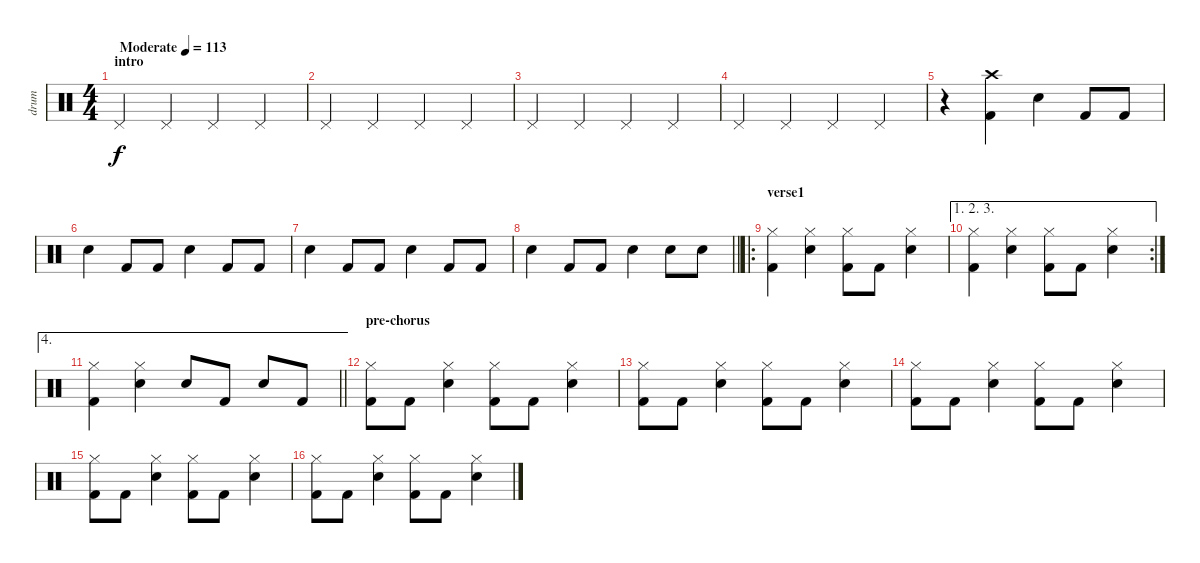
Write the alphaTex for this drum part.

\track ("drum" "drum") {instrument percussion}
\staff {score}
\articulation defaults
\ts (4 4)
\section ("" "intro")
\tempo (113 "Moderate")
\clef neutral
\ks c "Pedal Hi-Hat (hit)".4{dy f} "Pedal Hi-Hat (hit)".4 "Pedal Hi-Hat (hit)".4 "Pedal Hi-Hat (hit)".4
|
"Pedal Hi-Hat (hit)".4 "Pedal Hi-Hat (hit)".4 "Pedal Hi-Hat (hit)".4 "Pedal Hi-Hat (hit)".4 |
"Pedal Hi-Hat (hit)".4 "Pedal Hi-Hat (hit)".4 "Pedal Hi-Hat (hit)".4 "Pedal Hi-Hat (hit)".4 |
"Pedal Hi-Hat (hit)".4 "Pedal Hi-Hat (hit)".4 "Pedal Hi-Hat (hit)".4 "Pedal Hi-Hat (hit)".4 |
r.4 ("Crash high (hit)" "Kick (hit) 2").4 "Electric Snare (hit)".4 "Kick (hit) 2".8 "Kick (hit) 2".8 |
"Electric Snare (hit)".4 "Kick (hit) 2".8 "Kick (hit) 2".8 "Electric Snare (hit)".4 "Kick (hit) 2".8 "Kick (hit) 2".8 |
"Electric Snare (hit)".4 "Kick (hit) 2".8 "Kick (hit) 2".8 "Electric Snare (hit)".4 "Kick (hit) 2".8 "Kick (hit) 2".8 |
\barLineRight lightlight "Electric Snare (hit)".4 "Kick (hit) 2".8 "Kick (hit) 2".8 "Electric Snare (hit)".4 "Electric Snare (hit)".8 "Electric Snare (hit)".8
|
\ro
\section ("" "verse1")
("Kick (hit) 2" "Hi-Hat (closed)").4 ("Electric Snare (hit)" "Hi-Hat (closed)").4 ("Kick (hit) 2" "Hi-Hat (closed)").8 "Kick (hit) 2".8 ("Electric Snare (hit)" "Hi-Hat (closed)").4 |
\ae (1 2 3)
\rc 2
("Kick (hit) 2" "Hi-Hat (closed)").4 ("Electric Snare (hit)" "Hi-Hat (closed)").4 ("Kick (hit) 2" "Hi-Hat (closed)").8 "Kick (hit) 2".8 ("Electric Snare (hit)" "Hi-Hat (closed)").4 |
\ae 4
\barLineRight lightlight
("Kick (hit) 2" "Hi-Hat (closed)").4 ("Electric Snare (hit)" "Hi-Hat (closed)").4 "Electric Snare (hit)".8 "Kick (hit) 2".8 "Electric Snare (hit)".8 "Kick (hit) 2".8 |
\section ("" "pre-chorus")
("Kick (hit) 2" "Hi-Hat (closed)").8 "Kick (hit) 2".8 ("Electric Snare (hit)" "Hi-Hat (closed)").4 ("Kick (hit) 2" "Hi-Hat (closed)").8 "Kick (hit) 2".8 ("Electric Snare (hit)" "Hi-Hat (closed)").4 |
("Kick (hit) 2" "Hi-Hat (closed)").8 "Kick (hit) 2".8 ("Electric Snare (hit)" "Hi-Hat (closed)").4 ("Kick (hit) 2" "Hi-Hat (closed)").8 "Kick (hit) 2".8 ("Electric Snare (hit)" "Hi-Hat (closed)").4 |
("Kick (hit) 2" "Hi-Hat (closed)").8 "Kick (hit) 2".8 ("Electric Snare (hit)" "Hi-Hat (closed)").4 ("Kick (hit) 2" "Hi-Hat (closed)").8 "Kick (hit) 2".8 ("Electric Snare (hit)" "Hi-Hat (closed)").4 |
("Kick (hit) 2" "Hi-Hat (closed)").8 "Kick (hit) 2".8 ("Electric Snare (hit)" "Hi-Hat (closed)").4 ("Kick (hit) 2" "Hi-Hat (closed)").8 "Kick (hit) 2".8 ("Electric Snare (hit)" "Hi-Hat (closed)").4 |
("Kick (hit) 2" "Hi-Hat (closed)").8 "Kick (hit) 2".8 ("Electric Snare (hit)" "Hi-Hat (closed)").4 ("Kick (hit) 2" "Hi-Hat (closed)").8 "Kick (hit) 2".8 ("Electric Snare (hit)" "Hi-Hat (closed)").4
